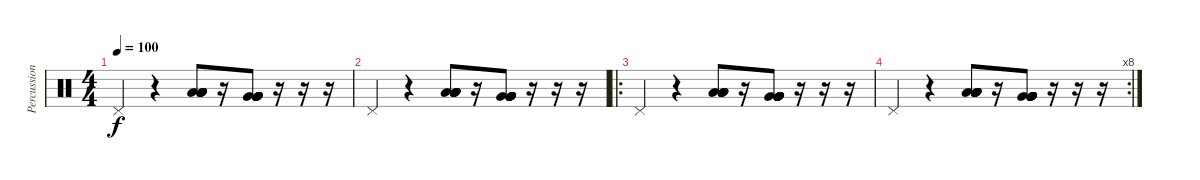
\track ("Percussions" "Percussion") {instrument percussion}
\staff {score}
\articulation defaults
\ts (4 4)
\tempo 100
\clef neutral
\ks c "Pedal Hi-Hat (hit)".4{dy f}
r.4 ("Low Tom (hit)" "Low Tom (hit)" "Low Tom (hit)" "Low Tom (hit)" "Low Tom (hit)" "Low Tom (hit)").8 r.16 ("Very Low Tom (hit)" "Very Low Tom (hit)" "Very Low Tom (hit)" "Very Low Tom (hit)" "Very Low Tom (hit)" "Very Low Tom (hit)").8 r.16 r.16 r.16 |
"Pedal Hi-Hat (hit)".4 r.4 ("Low Tom (hit)" "Low Tom (hit)" "Low Tom (hit)" "Low Tom (hit)" "Low Tom (hit)" "Low Tom (hit)").8 r.16 ("Very Low Tom (hit)" "Very Low Tom (hit)" "Very Low Tom (hit)" "Very Low Tom (hit)" "Very Low Tom (hit)" "Very Low Tom (hit)").8 r.16 r.16 r.16 |
\ro "Pedal Hi-Hat (hit)".4
r.4 ("Low Tom (hit)" "Low Tom (hit)" "Low Tom (hit)" "Low Tom (hit)" "Low Tom (hit)" "Low Tom (hit)").8 r.16 ("Very Low Tom (hit)" "Very Low Tom (hit)" "Very Low Tom (hit)" "Very Low Tom (hit)" "Very Low Tom (hit)" "Very Low Tom (hit)").8 r.16 r.16 r.16 |
\rc 8 "Pedal Hi-Hat (hit)".4
r.4 ("Low Tom (hit)" "Low Tom (hit)" "Low Tom (hit)" "Low Tom (hit)" "Low Tom (hit)" "Low Tom (hit)").8 r.16 ("Very Low Tom (hit)" "Very Low Tom (hit)" "Very Low Tom (hit)" "Very Low Tom (hit)" "Very Low Tom (hit)" "Very Low Tom (hit)").8 r.16 r.16 r.16
